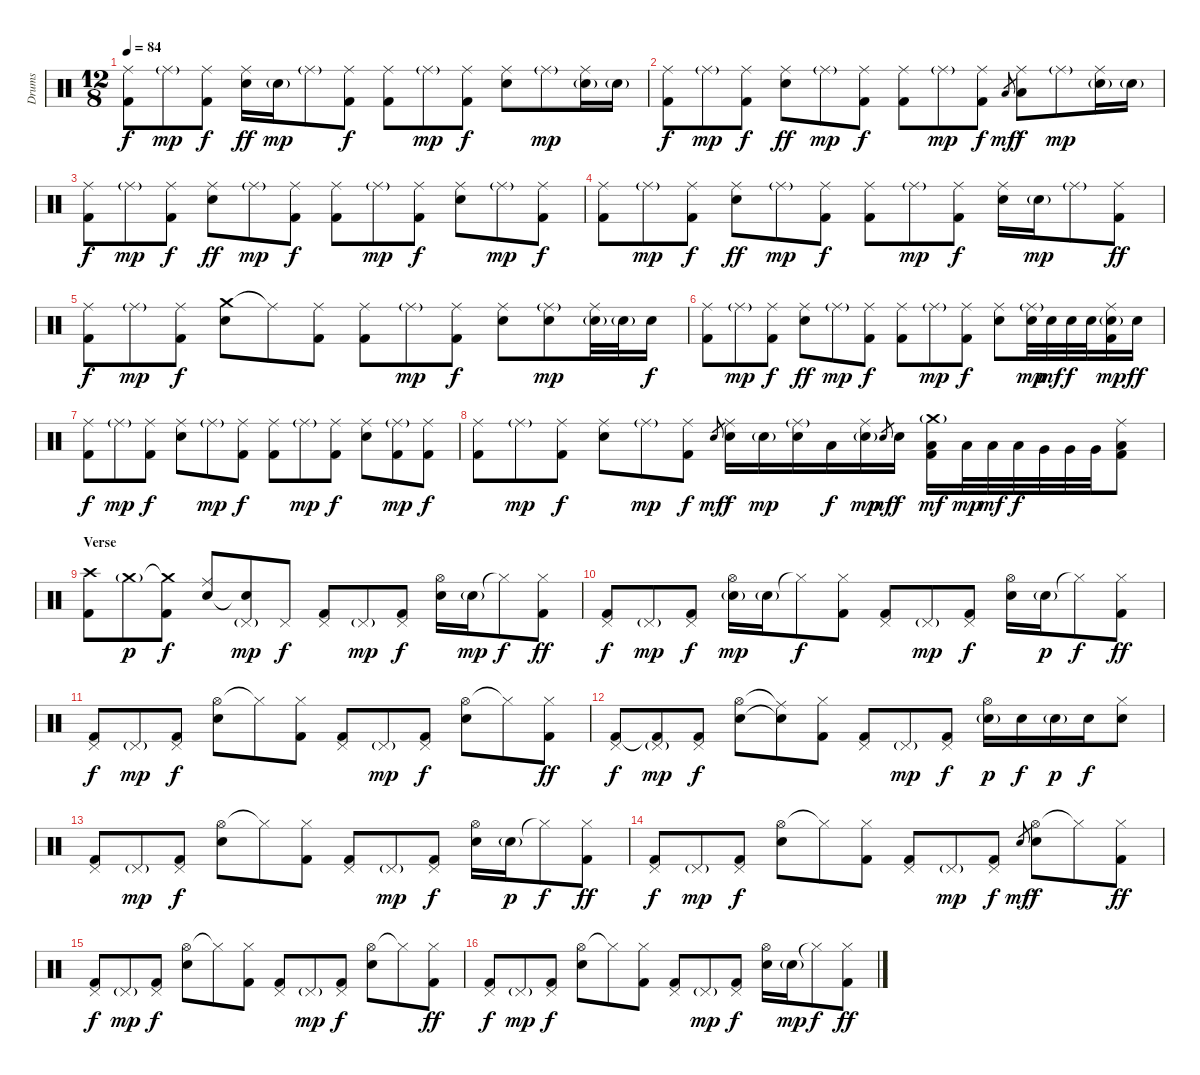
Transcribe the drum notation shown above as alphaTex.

\track ("Drums" "Drums") {instrument percussion}
\staff {score}
\articulation defaults
\ts (12 8)
\tempo 84
\clef neutral
\ks c
("Ride (middle)" "Kick (hit) 2").8{dy f} "Ride (middle)"{g}.8{dy mp} ("Ride (middle)" "Kick (hit) 2").8{dy f} ("Ride (middle)" "Electric Snare (hit)").16{dy ff} "Electric Snare (hit)"{g}.16{dy mp} "Ride (middle)"{g}.8 ("Ride (middle)" "Kick (hit) 2").8{dy f} ("Ride (middle)" "Kick (hit) 2").8 "Ride (middle)"{g}.8{dy mp} ("Ride (middle)" "Kick (hit) 2").8{dy f} ("Ride (middle)" "Electric Snare (hit)").8 "Ride (middle)"{g}.8{dy mp} ("Ride (middle)" "Electric Snare (hit)"{g}).16 "Electric Snare (hit)"{g}.16 |
("Ride (middle)" "Kick (hit) 2").8{dy f} "Ride (middle)"{g}.8{dy mp} ("Ride (middle)" "Kick (hit) 2").8{dy f} ("Ride (middle)" "Electric Snare (hit)").8{dy ff} "Ride (middle)"{g}.8{dy mp} ("Ride (middle)" "Kick (hit) 2").8{dy f} ("Ride (middle)" "Kick (hit) 2").8 "Ride (middle)"{g}.8{dy mp} ("Ride (middle)" "Kick (hit) 2").8{dy f} "Low Tom (hit)".8{gr dy mf} ("Ride (middle)" "Low Tom (hit)").8{dy f} "Ride (middle)"{g}.8{dy mp} ("Ride (middle)" "Electric Snare (hit)"{g}).16 "Electric Snare (hit)"{g}.16 |
("Ride (middle)" "Kick (hit) 2").8{dy f} "Ride (middle)"{g}.8{dy mp} ("Ride (middle)" "Kick (hit) 2").8{dy f} ("Ride (middle)" "Electric Snare (hit)").8{dy ff} "Ride (middle)"{g}.8{dy mp} ("Ride (middle)" "Kick (hit) 2").8{dy f} ("Ride (middle)" "Kick (hit) 2").8 "Ride (middle)"{g}.8{dy mp} ("Ride (middle)" "Kick (hit) 2").8{dy f} ("Ride (middle)" "Electric Snare (hit)").8 "Ride (middle)"{g}.8{dy mp} ("Ride (middle)" "Kick (hit) 2").8{dy f} |
("Ride (middle)" "Kick (hit) 2").8 "Ride (middle)"{g}.8{dy mp} ("Ride (middle)" "Kick (hit) 2").8{dy f} ("Ride (middle)" "Electric Snare (hit)").8{dy ff} "Ride (middle)"{g}.8{dy mp} ("Ride (middle)" "Kick (hit) 2").8{dy f} ("Ride (middle)" "Kick (hit) 2").8 "Ride (middle)"{g}.8{dy mp} ("Ride (middle)" "Kick (hit) 2").8{dy f} ("Ride (middle)" "Electric Snare (hit)").16 "Electric Snare (hit)"{g}.16{dy mp} "Ride (middle)"{g}.8 ("Ride (middle)" "Kick (hit) 2").8{dy ff} |
("Ride (middle)" "Kick (hit) 2").8{dy f} "Ride (middle)"{g}.8{dy mp} ("Ride (middle)" "Kick (hit) 2").8{dy f} ("Crash medium (hit)" "Electric Snare (hit)").8 "Ride (middle)"{t}.8 ("Ride (middle)" "Kick (hit) 2").8 ("Ride (middle)" "Kick (hit) 2").8 "Ride (middle)"{g}.8{dy mp} ("Ride (middle)" "Kick (hit) 2").8{dy f} ("Ride (middle)" "Electric Snare (hit)").8 ("Ride (middle)"{g} "Electric Snare (hit)").8{dy mp} ("Ride (middle)" "Electric Snare (hit)"{g}).32 "Electric Snare (hit)"{g}.32 "Electric Snare (hit)".16{dy f} |
("Ride (middle)" "Kick (hit) 2").8 "Ride (middle)"{g}.8{dy mp} ("Ride (middle)" "Kick (hit) 2").8{dy f} ("Ride (middle)" "Electric Snare (hit)").8{dy ff} "Ride (middle)"{g}.8{dy mp} ("Ride (middle)" "Kick (hit) 2").8{dy f} ("Ride (middle)" "Kick (hit) 2").8 "Ride (middle)"{g}.8{dy mp} ("Ride (middle)" "Kick (hit) 2").8{dy f} ("Ride (middle)" "Electric Snare (hit)").8 ("Ride (middle)"{g} "Electric Snare (hit)").32{dy mp} "Electric Snare (hit)".32{dy mf} "Electric Snare (hit)".32{dy f} "Electric Snare (hit)".32 ("Ride (middle)" "Electric Snare (hit)"{g} "Kick (hit) 2").16{dy mp} "Electric Snare (hit)".16{dy ff} |
("Ride (middle)" "Kick (hit) 2").8{dy f} "Ride (middle)"{g}.8{dy mp} ("Ride (middle)" "Kick (hit) 2").8{dy f} ("Ride (middle)" "Electric Snare (hit)").8 "Ride (middle)"{g}.8{dy mp} ("Ride (middle)" "Kick (hit) 2").8{dy f} ("Ride (middle)" "Kick (hit) 2").8 "Ride (middle)"{g}.8{dy mp} ("Ride (middle)" "Kick (hit) 2").8{dy f} ("Ride (middle)" "Electric Snare (hit)").8 ("Ride (middle)"{g} "Kick (hit) 2").8{dy mp} ("Ride (middle)" "Kick (hit) 2").8{dy f} |
("Ride (middle)" "Kick (hit) 2").8 "Ride (middle)"{g}.8{dy mp} ("Ride (middle)" "Kick (hit) 2").8{dy f} ("Ride (middle)" "Electric Snare (hit)").8 "Ride (middle)"{g}.8{dy mp} ("Ride (middle)" "Kick (hit) 2").8{dy f} "Electric Snare (hit)".8{gr dy mf} ("Ride (middle)" "Electric Snare (hit)").16{dy f} "Electric Snare (hit)"{g}.16{dy mp} ("Ride (middle)"{g} "Electric Snare (hit)").16 "Low Tom (hit)".16{dy f} ("Ride (middle)" "Electric Snare (hit)"{g}).16{dy mp} "Electric Snare (hit)"{sl}.8{gr dy mf} "Electric Snare (hit)".16{dy f} ("Crash medium (hit)"{g} "Low Tom (hit)" "Kick (hit) 2").16{dy mf} "Low Tom (hit)".32{dy mp} "Low Tom (hit)".32{dy mf} "Low Tom (hit)".32{dy f} "Very Low Tom (hit)".32 "Very Low Tom (hit)".32 "Very Low Tom (hit)".32 ("Ride (middle)" "Low Floor Tom (hit)" "Kick (hit) 2").8 |
\section ("" "Verse")
("Crash high (hit)" "Kick (hit) 2").8 "Crash medium (hit)"{g}.8{dy p} ("Crash medium (hit)"{t} "Kick (hit) 2").8{dy f} ("Ride (middle)" "Electric Snare (hit)").8 ("Pedal Hi-Hat (hit)"{g} "Snare (hit)"{t}).8{dy mp} "Pedal Hi-Hat (hit)".8{dy f} ("Pedal Hi-Hat (hit)" "Kick (hit) 2").8 "Pedal Hi-Hat (hit)"{g}.8{dy mp} ("Pedal Hi-Hat (hit)" "Kick (hit) 2").8{dy f} ("Hi-Hat (open)" "Electric Snare (hit)").16 "Electric Snare (hit)"{g}.16{dy mp} "Hi-Hat (closed)"{t}.8{dy f} ("Hi-Hat (closed)" "Kick (hit) 2").8{dy ff} |
("Pedal Hi-Hat (hit)" "Kick (hit) 2").8{dy f} "Pedal Hi-Hat (hit)"{g}.8{dy mp} ("Pedal Hi-Hat (hit)" "Kick (hit) 2").8{dy f} ("Hi-Hat (open)" "Electric Snare (hit)"{g}).16{dy mp} "Electric Snare (hit)"{g}.16 "Hi-Hat (closed)"{t}.8{dy f} ("Hi-Hat (closed)" "Kick (hit) 2").8 ("Pedal Hi-Hat (hit)" "Kick (hit) 2").8 "Pedal Hi-Hat (hit)"{g}.8{dy mp} ("Pedal Hi-Hat (hit)" "Kick (hit) 2").8{dy f} ("Hi-Hat (open)" "Electric Snare (hit)").16 "Electric Snare (hit)"{g}.16{dy p} "Hi-Hat (closed)"{t}.8{dy f} ("Hi-Hat (closed)" "Kick (hit) 2").8{dy ff} |
("Pedal Hi-Hat (hit)" "Kick (hit) 2").8{dy f} "Pedal Hi-Hat (hit)"{g}.8{dy mp} ("Pedal Hi-Hat (hit)" "Kick (hit) 2").8{dy f} ("Hi-Hat (open)" "Electric Snare (hit)").8 "Hi-Hat (closed)"{t}.8 ("Hi-Hat (closed)" "Kick (hit) 2").8 ("Pedal Hi-Hat (hit)" "Kick (hit) 2").8 "Pedal Hi-Hat (hit)"{g}.8{dy mp} ("Pedal Hi-Hat (hit)" "Kick (hit) 2").8{dy f} ("Hi-Hat (open)" "Electric Snare (hit)").8 "Hi-Hat (closed)"{t}.8 ("Hi-Hat (closed)" "Kick (hit) 2").8{dy ff} |
("Pedal Hi-Hat (hit)" "Kick (hit) 2").8{dy f} ("Pedal Hi-Hat (hit)"{g} "Kick (hit) 2"{t}).8{dy mp} ("Pedal Hi-Hat (hit)" "Kick (hit) 2").8{dy f} ("Hi-Hat (open)" "Electric Snare (hit)").8 ("Ride (middle)"{t} "Snare (hit)"{t}).8 ("Hi-Hat (closed)" "Kick (hit) 2").8 ("Pedal Hi-Hat (hit)" "Kick (hit) 2").8 "Pedal Hi-Hat (hit)"{g}.8{dy mp} ("Pedal Hi-Hat (hit)" "Kick (hit) 2").8{dy f} ("Hi-Hat (open)" "Electric Snare (hit)"{g}).16{dy p} "Electric Snare (hit)".16{dy f} "Electric Snare (hit)"{g}.16{dy p} "Electric Snare (hit)".16{dy f} ("Hi-Hat (closed)" "Electric Snare (hit)").8 |
("Pedal Hi-Hat (hit)" "Kick (hit) 2").8 "Pedal Hi-Hat (hit)"{g}.8{dy mp} ("Pedal Hi-Hat (hit)" "Kick (hit) 2").8{dy f} ("Hi-Hat (open)" "Electric Snare (hit)").8 "Hi-Hat (closed)"{t}.8 ("Hi-Hat (closed)" "Kick (hit) 2").8 ("Pedal Hi-Hat (hit)" "Kick (hit) 2").8 "Pedal Hi-Hat (hit)"{g}.8{dy mp} ("Pedal Hi-Hat (hit)" "Kick (hit) 2").8{dy f} ("Hi-Hat (open)" "Electric Snare (hit)").16 "Electric Snare (hit)"{g}.16{dy p} "Hi-Hat (closed)"{t}.8{dy f} ("Hi-Hat (closed)" "Kick (hit) 2").8{dy ff} |
("Pedal Hi-Hat (hit)" "Kick (hit) 2").8{dy f} "Pedal Hi-Hat (hit)"{g}.8{dy mp} ("Pedal Hi-Hat (hit)" "Kick (hit) 2").8{dy f} ("Hi-Hat (open)" "Electric Snare (hit)").8 "Hi-Hat (closed)"{t}.8 ("Hi-Hat (closed)" "Kick (hit) 2").8 ("Pedal Hi-Hat (hit)" "Kick (hit) 2").8 "Pedal Hi-Hat (hit)"{g}.8{dy mp} ("Pedal Hi-Hat (hit)" "Kick (hit) 2").8{dy f} "Electric Snare (hit)".8{gr dy mf} ("Hi-Hat (open)" "Electric Snare (hit)").8{dy f} "Hi-Hat (closed)"{t}.8 ("Hi-Hat (closed)" "Kick (hit) 2").8{dy ff} |
("Pedal Hi-Hat (hit)" "Kick (hit) 2").8{dy f} "Pedal Hi-Hat (hit)"{g}.8{dy mp} ("Pedal Hi-Hat (hit)" "Kick (hit) 2").8{dy f} ("Hi-Hat (open)" "Electric Snare (hit)").8 "Hi-Hat (closed)"{t}.8 ("Hi-Hat (closed)" "Kick (hit) 2").8 ("Pedal Hi-Hat (hit)" "Kick (hit) 2").8 "Pedal Hi-Hat (hit)"{g}.8{dy mp} ("Pedal Hi-Hat (hit)" "Kick (hit) 2").8{dy f} ("Hi-Hat (open)" "Electric Snare (hit)").8 "Hi-Hat (closed)"{t}.8 ("Hi-Hat (closed)" "Kick (hit) 2").8{dy ff} |
("Pedal Hi-Hat (hit)" "Kick (hit) 2").8{dy f} "Pedal Hi-Hat (hit)"{g}.8{dy mp} ("Pedal Hi-Hat (hit)" "Kick (hit) 2").8{dy f} ("Hi-Hat (open)" "Electric Snare (hit)").8 "Hi-Hat (closed)"{t}.8 ("Hi-Hat (closed)" "Kick (hit) 2").8 ("Pedal Hi-Hat (hit)" "Kick (hit) 2").8 "Pedal Hi-Hat (hit)"{g}.8{dy mp} ("Pedal Hi-Hat (hit)" "Kick (hit) 2").8{dy f} ("Hi-Hat (open)" "Electric Snare (hit)").16 "Electric Snare (hit)"{g}.16{dy mp} "Hi-Hat (closed)"{t}.8{dy f} ("Hi-Hat (closed)" "Kick (hit) 2").8{dy ff}
